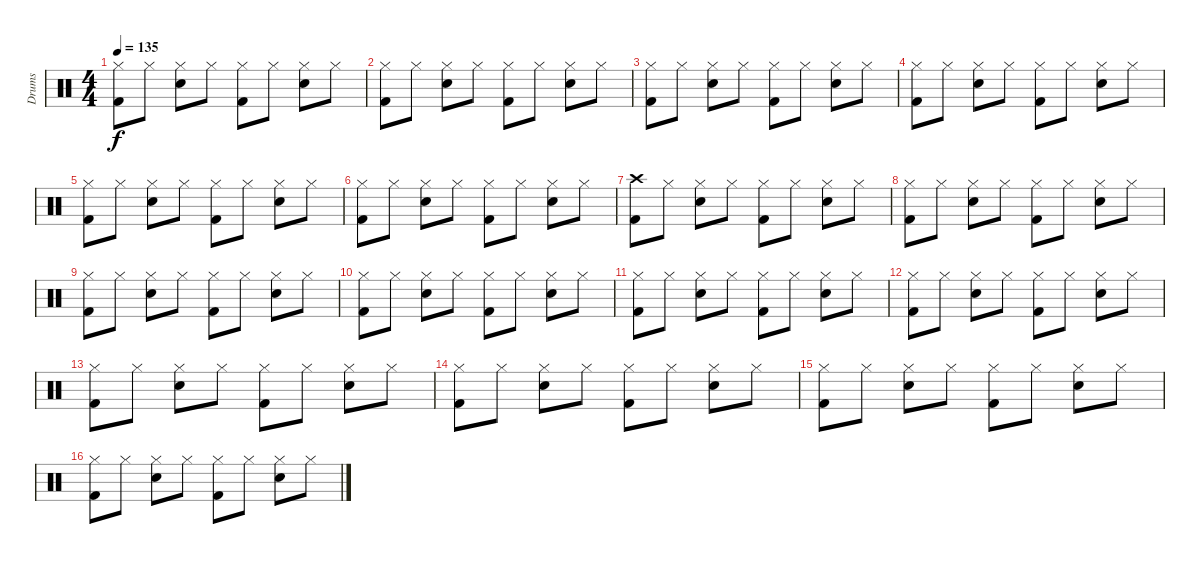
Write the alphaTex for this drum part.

\track ("Drums" "Drums") {instrument percussion}
\staff {score}
\articulation defaults
\ts (4 4)
\tempo 135
\clef neutral
\ks c
("Hi-Hat (closed)" "Kick (hit) 2").8{dy f} "Hi-Hat (closed)".8 ("Hi-Hat (closed)" "Snare (hit) 2").8 "Hi-Hat (closed)".8 ("Hi-Hat (closed)" "Kick (hit) 2").8 "Hi-Hat (closed)".8 ("Hi-Hat (closed)" "Snare (hit) 2").8 "Hi-Hat (closed)".8 |
("Hi-Hat (closed)" "Kick (hit) 2").8 "Hi-Hat (closed)".8 ("Hi-Hat (closed)" "Snare (hit) 2").8 "Hi-Hat (closed)".8 ("Hi-Hat (closed)" "Kick (hit) 2").8 "Hi-Hat (closed)".8 ("Hi-Hat (closed)" "Snare (hit) 2").8 "Hi-Hat (closed)".8 |
("Hi-Hat (closed)" "Kick (hit) 2").8 "Hi-Hat (closed)".8 ("Hi-Hat (closed)" "Snare (hit) 2").8 "Hi-Hat (closed)".8 ("Hi-Hat (closed)" "Kick (hit) 2").8 "Hi-Hat (closed)".8 ("Hi-Hat (closed)" "Snare (hit) 2").8 "Hi-Hat (closed)".8 |
("Hi-Hat (closed)" "Kick (hit) 2").8 "Hi-Hat (closed)".8 ("Hi-Hat (closed)" "Snare (hit) 2").8 "Hi-Hat (closed)".8 ("Hi-Hat (closed)" "Kick (hit) 2").8 "Hi-Hat (closed)".8 ("Hi-Hat (closed)" "Snare (hit) 2").8 "Hi-Hat (closed)".8 |
("Hi-Hat (closed)" "Kick (hit) 2").8 "Hi-Hat (closed)".8 ("Hi-Hat (closed)" "Snare (hit) 2").8 "Hi-Hat (closed)".8 ("Hi-Hat (closed)" "Kick (hit) 2").8 "Hi-Hat (closed)".8 ("Hi-Hat (closed)" "Snare (hit) 2").8 "Hi-Hat (closed)".8 |
("Hi-Hat (closed)" "Kick (hit) 2").8 "Hi-Hat (closed)".8 ("Hi-Hat (closed)" "Snare (hit) 2").8 "Hi-Hat (closed)".8 ("Hi-Hat (closed)" "Kick (hit) 2").8 "Hi-Hat (closed)".8 ("Hi-Hat (closed)" "Snare (hit) 2").8 "Hi-Hat (closed)".8 |
("Crash high (hit)" "Kick (hit) 2").8 "Hi-Hat (closed)".8 ("Hi-Hat (closed)" "Snare (hit) 2").8 "Hi-Hat (closed)".8 ("Hi-Hat (closed)" "Kick (hit) 2").8 "Hi-Hat (closed)".8 ("Hi-Hat (closed)" "Snare (hit) 2").8 "Hi-Hat (closed)".8 |
("Hi-Hat (closed)" "Kick (hit) 2").8 "Hi-Hat (closed)".8 ("Hi-Hat (closed)" "Snare (hit) 2").8 "Hi-Hat (closed)".8 ("Hi-Hat (closed)" "Kick (hit) 2").8 "Hi-Hat (closed)".8 ("Hi-Hat (closed)" "Snare (hit) 2").8 "Hi-Hat (closed)".8 |
("Hi-Hat (closed)" "Kick (hit) 2").8 "Hi-Hat (closed)".8 ("Hi-Hat (closed)" "Snare (hit) 2").8 "Hi-Hat (closed)".8 ("Hi-Hat (closed)" "Kick (hit) 2").8 "Hi-Hat (closed)".8 ("Hi-Hat (closed)" "Snare (hit) 2").8 "Hi-Hat (closed)".8 |
("Hi-Hat (closed)" "Kick (hit) 2").8 "Hi-Hat (closed)".8 ("Hi-Hat (closed)" "Snare (hit) 2").8 "Hi-Hat (closed)".8 ("Hi-Hat (closed)" "Kick (hit) 2").8 "Hi-Hat (closed)".8 ("Hi-Hat (closed)" "Snare (hit) 2").8 "Hi-Hat (closed)".8 |
("Hi-Hat (closed)" "Kick (hit) 2").8 "Hi-Hat (closed)".8 ("Hi-Hat (closed)" "Snare (hit) 2").8 "Hi-Hat (closed)".8 ("Hi-Hat (closed)" "Kick (hit) 2").8 "Hi-Hat (closed)".8 ("Hi-Hat (closed)" "Snare (hit) 2").8 "Hi-Hat (closed)".8 |
("Hi-Hat (closed)" "Kick (hit) 2").8 "Hi-Hat (closed)".8 ("Hi-Hat (closed)" "Snare (hit) 2").8 "Hi-Hat (closed)".8 ("Hi-Hat (closed)" "Kick (hit) 2").8 "Hi-Hat (closed)".8 ("Hi-Hat (closed)" "Snare (hit) 2").8 "Hi-Hat (closed)".8 |
("Hi-Hat (closed)" "Kick (hit) 2").8 "Hi-Hat (closed)".8 ("Hi-Hat (closed)" "Snare (hit) 2").8 "Hi-Hat (closed)".8 ("Hi-Hat (closed)" "Kick (hit) 2").8 "Hi-Hat (closed)".8 ("Hi-Hat (closed)" "Snare (hit) 2").8 "Hi-Hat (closed)".8 |
("Hi-Hat (closed)" "Kick (hit) 2").8 "Hi-Hat (closed)".8 ("Hi-Hat (closed)" "Snare (hit) 2").8 "Hi-Hat (closed)".8 ("Hi-Hat (closed)" "Kick (hit) 2").8 "Hi-Hat (closed)".8 ("Hi-Hat (closed)" "Snare (hit) 2").8 "Hi-Hat (closed)".8 |
("Hi-Hat (closed)" "Kick (hit) 2").8 "Hi-Hat (closed)".8 ("Hi-Hat (closed)" "Snare (hit) 2").8 "Hi-Hat (closed)".8 ("Hi-Hat (closed)" "Kick (hit) 2").8 "Hi-Hat (closed)".8 ("Hi-Hat (closed)" "Snare (hit) 2").8 "Hi-Hat (closed)".8 |
("Hi-Hat (closed)" "Kick (hit) 2").8 "Hi-Hat (closed)".8 ("Hi-Hat (closed)" "Snare (hit) 2").8 "Hi-Hat (closed)".8 ("Hi-Hat (closed)" "Kick (hit) 2").8 "Hi-Hat (closed)".8 ("Hi-Hat (closed)" "Snare (hit) 2").8 "Hi-Hat (closed)".8
